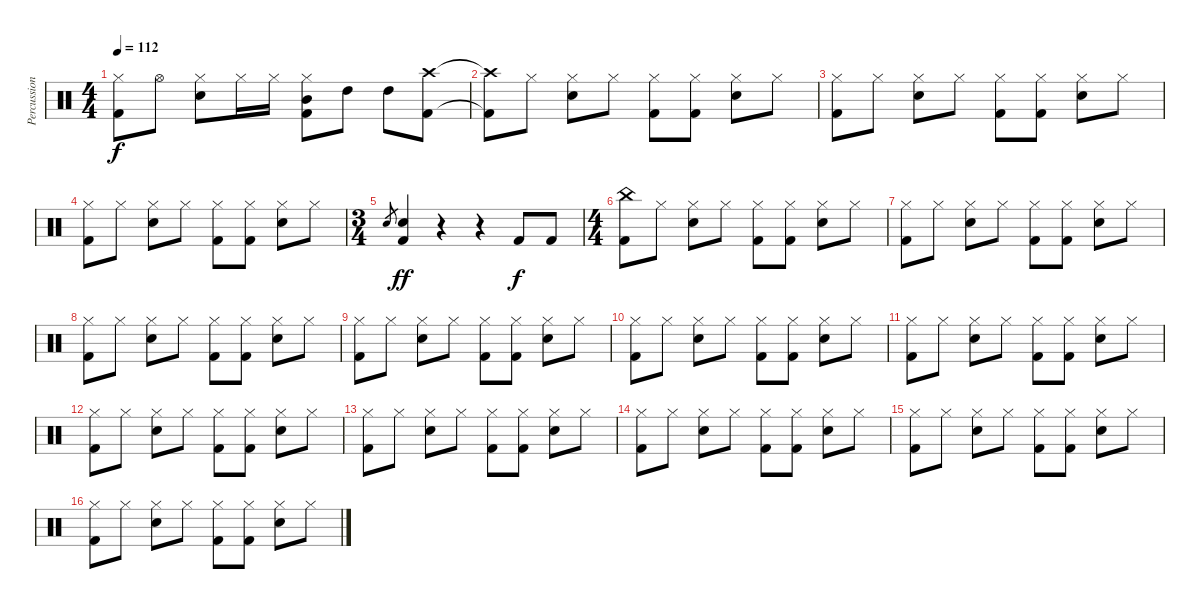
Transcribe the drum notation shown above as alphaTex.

\track ("Percussion" "Percussion") {instrument percussion}
\staff {score}
\articulation defaults
\ts (4 4)
\tempo 112
\clef neutral
\ks c
("Hi-Hat (closed)" "Kick (hit) 2").8{dy f} "Hi-Hat (open)".8 ("Hi-Hat (closed)" "Snare (hit) 2").8 "Hi-Hat (closed)".16 "Hi-Hat (closed)".16 ("Hi-Hat (closed)" "Mid Tom (hit)" "Kick (hit) 2").8 "High Tom (hit)".8 "High Tom (hit)".8 ("Crash high (hit)" "Kick (hit) 2").8 |
("Crash high (hit)"{t} "Kick (hit) 2"{t}).8 "Hi-Hat (closed)".8 ("Hi-Hat (closed)" "Snare (hit) 2").8 "Hi-Hat (closed)".8 ("Hi-Hat (closed)" "Kick (hit) 2").8 ("Hi-Hat (closed)" "Kick (hit) 2").8 ("Hi-Hat (closed)" "Snare (hit) 2").8 "Hi-Hat (closed)".8 |
("Hi-Hat (closed)" "Kick (hit) 2").8 "Hi-Hat (closed)".8 ("Hi-Hat (closed)" "Snare (hit) 2").8 "Hi-Hat (closed)".8 ("Hi-Hat (closed)" "Kick (hit) 2").8 ("Hi-Hat (closed)" "Kick (hit) 2").8 ("Hi-Hat (closed)" "Snare (hit) 2").8 "Hi-Hat (closed)".8 |
("Hi-Hat (closed)" "Kick (hit) 2").8 "Hi-Hat (closed)".8 ("Hi-Hat (closed)" "Snare (hit) 2").8 "Hi-Hat (closed)".8 ("Hi-Hat (closed)" "Kick (hit) 2").8 ("Hi-Hat (closed)" "Kick (hit) 2").8 ("Hi-Hat (closed)" "Snare (hit) 2").8 "Hi-Hat (closed)".8 |
\ts (3 4)
"Snare (hit) 2".8{gr} ("Snare (hit) 2" "Kick (hit) 2").4{dy ff} r.4 r.4 "Kick (hit) 2".8{dy f} "Kick (hit) 2".8 |
\ts (4 4)
("China (hit)" "Kick (hit) 2").8 "Hi-Hat (closed)".8 ("Hi-Hat (closed)" "Snare (hit) 2").8 "Hi-Hat (closed)".8 ("Hi-Hat (closed)" "Kick (hit) 2").8 ("Hi-Hat (closed)" "Kick (hit) 2").8 ("Hi-Hat (closed)" "Snare (hit) 2").8 "Hi-Hat (closed)".8 |
("Hi-Hat (closed)" "Kick (hit) 2").8 "Hi-Hat (closed)".8 ("Hi-Hat (closed)" "Snare (hit) 2").8 "Hi-Hat (closed)".8 ("Hi-Hat (closed)" "Kick (hit) 2").8 ("Hi-Hat (closed)" "Kick (hit) 2").8 ("Hi-Hat (closed)" "Snare (hit) 2").8 "Hi-Hat (closed)".8 |
("Hi-Hat (closed)" "Kick (hit) 2").8 "Hi-Hat (closed)".8 ("Hi-Hat (closed)" "Snare (hit) 2").8 "Hi-Hat (closed)".8 ("Hi-Hat (closed)" "Kick (hit) 2").8 ("Hi-Hat (closed)" "Kick (hit) 2").8 ("Hi-Hat (closed)" "Snare (hit) 2").8 "Hi-Hat (closed)".8 |
("Hi-Hat (closed)" "Kick (hit) 2").8 "Hi-Hat (closed)".8 ("Hi-Hat (closed)" "Snare (hit) 2").8 "Hi-Hat (closed)".8 ("Hi-Hat (closed)" "Kick (hit) 2").8 ("Hi-Hat (closed)" "Kick (hit) 2").8 ("Hi-Hat (closed)" "Snare (hit) 2").8 "Hi-Hat (closed)".8 |
("Hi-Hat (closed)" "Kick (hit) 2").8 "Hi-Hat (closed)".8 ("Hi-Hat (closed)" "Snare (hit) 2").8 "Hi-Hat (closed)".8 ("Hi-Hat (closed)" "Kick (hit) 2").8 ("Hi-Hat (closed)" "Kick (hit) 2").8 ("Hi-Hat (closed)" "Snare (hit) 2").8 "Hi-Hat (closed)".8 |
("Hi-Hat (closed)" "Kick (hit) 2").8 "Hi-Hat (closed)".8 ("Hi-Hat (closed)" "Snare (hit) 2").8 "Hi-Hat (closed)".8 ("Hi-Hat (closed)" "Kick (hit) 2").8 ("Hi-Hat (closed)" "Kick (hit) 2").8 ("Hi-Hat (closed)" "Snare (hit) 2").8 "Hi-Hat (closed)".8 |
("Hi-Hat (closed)" "Kick (hit) 2").8 "Hi-Hat (closed)".8 ("Hi-Hat (closed)" "Snare (hit) 2").8 "Hi-Hat (closed)".8 ("Hi-Hat (closed)" "Kick (hit) 2").8 ("Hi-Hat (closed)" "Kick (hit) 2").8 ("Hi-Hat (closed)" "Snare (hit) 2").8 "Hi-Hat (closed)".8 |
("Hi-Hat (closed)" "Kick (hit) 2").8 "Hi-Hat (closed)".8 ("Hi-Hat (closed)" "Snare (hit) 2").8 "Hi-Hat (closed)".8 ("Hi-Hat (closed)" "Kick (hit) 2").8 ("Hi-Hat (closed)" "Kick (hit) 2").8 ("Hi-Hat (closed)" "Snare (hit) 2").8 "Hi-Hat (closed)".8 |
("Hi-Hat (closed)" "Kick (hit) 2").8 "Hi-Hat (closed)".8 ("Hi-Hat (closed)" "Snare (hit) 2").8 "Hi-Hat (closed)".8 ("Hi-Hat (closed)" "Kick (hit) 2").8 ("Hi-Hat (closed)" "Kick (hit) 2").8 ("Hi-Hat (closed)" "Snare (hit) 2").8 "Hi-Hat (closed)".8 |
("Hi-Hat (closed)" "Kick (hit) 2").8 "Hi-Hat (closed)".8 ("Hi-Hat (closed)" "Snare (hit) 2").8 "Hi-Hat (closed)".8 ("Hi-Hat (closed)" "Kick (hit) 2").8 ("Hi-Hat (closed)" "Kick (hit) 2").8 ("Hi-Hat (closed)" "Snare (hit) 2").8 "Hi-Hat (closed)".8 |
("Hi-Hat (closed)" "Kick (hit) 2").8 "Hi-Hat (closed)".8 ("Hi-Hat (closed)" "Snare (hit) 2").8 "Hi-Hat (closed)".8 ("Hi-Hat (closed)" "Kick (hit) 2").8 ("Hi-Hat (closed)" "Kick (hit) 2").8 ("Hi-Hat (closed)" "Snare (hit) 2").8 "Hi-Hat (closed)".8
